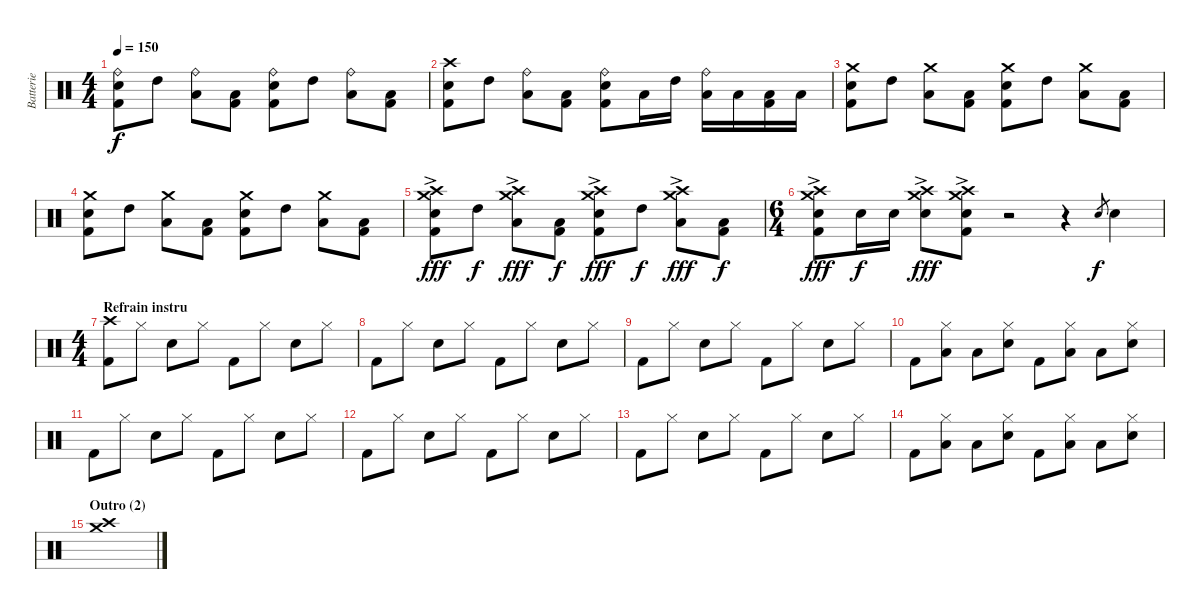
\track ("Batterie" "Batterie") {instrument percussion}
\staff {score}
\articulation defaults
\ts (4 4)
\tempo 150
\clef neutral
\ks c
("Ride (bell)" "Electric Snare (hit)" "Kick (hit) 2").8{dy f} "High Tom (hit)".8 ("Ride (bell)" "Low Tom (hit)").8 ("Low Floor Tom (hit)" "Kick (hit) 2").8 ("Ride (bell)" "Electric Snare (hit)" "Kick (hit) 2").8 "High Tom (hit)".8 ("Ride (bell)" "Low Tom (hit)").8 ("Low Floor Tom (hit)" "Kick (hit) 2").8 |
("Crash high (hit)" "Electric Snare (hit)" "Kick (hit) 2").8 "High Tom (hit)".8 ("Ride (bell)" "Low Tom (hit)").8 ("Low Floor Tom (hit)" "Kick (hit) 2").8 ("Ride (bell)" "Electric Snare (hit)" "Kick (hit) 2").8 "Low Tom (hit)".16 "High Tom (hit)".16 ("Ride (bell)" "Low Tom (hit)").16 "Low Tom (hit)".16 ("Low Floor Tom (hit)" "Kick (hit) 2").16 "Low Floor Tom (hit)".16 |
("Crash medium (hit)" "Electric Snare (hit)" "Kick (hit) 2").8 "High Tom (hit)".8 ("Crash medium (hit)" "Low Tom (hit)").8 ("Low Floor Tom (hit)" "Kick (hit) 2").8 ("Crash medium (hit)" "Electric Snare (hit)" "Kick (hit) 2").8 "High Tom (hit)".8 ("Crash medium (hit)" "Low Tom (hit)").8 ("Low Floor Tom (hit)" "Kick (hit) 2").8 |
("Crash medium (hit)" "Electric Snare (hit)" "Kick (hit) 2").8 "High Tom (hit)".8 ("Crash medium (hit)" "Low Tom (hit)").8 ("Low Floor Tom (hit)" "Kick (hit) 2").8 ("Crash medium (hit)" "Electric Snare (hit)" "Kick (hit) 2").8 "High Tom (hit)".8 ("Crash medium (hit)" "Low Tom (hit)").8 ("Low Floor Tom (hit)" "Kick (hit) 2").8 |
("Crash medium (hit)"{ac} "Crash high (hit)" "Electric Snare (hit)" "Kick (hit) 2").8{dy fff} "High Tom (hit)".8{dy f} ("Crash medium (hit)"{ac} "Crash high (hit)" "Low Tom (hit)").8{dy fff} ("Low Floor Tom (hit)" "Kick (hit) 2").8{dy f} ("Crash medium (hit)"{ac} "Crash high (hit)" "Electric Snare (hit)" "Kick (hit) 2").8{dy fff} "High Tom (hit)".8{dy f} ("Crash medium (hit)"{ac} "Crash high (hit)" "Low Tom (hit)").8{dy fff} ("Low Floor Tom (hit)" "Kick (hit) 2").8{dy f} |
\ts (6 4)
("Crash medium (hit)"{ac} "Crash high (hit)" "Electric Snare (hit)" "Kick (hit) 2").8{dy fff} "Electric Snare (hit)".16{dy f} "Electric Snare (hit)".16 ("Crash medium (hit)"{ac} "Crash high (hit)" "Electric Snare (hit)").8{dy fff} ("Crash medium (hit)"{ac} "Crash high (hit)" "Electric Snare (hit)" "Kick (hit) 2").8 r.2 r.4 "Electric Snare (hit)".8{gr dy f} "Electric Snare (hit)".4 |
\ts (4 4)
\section ("" "Refrain instru")
("Crash high (hit)" "Kick (hit) 2").8 "Hi-Hat (closed)".8 "Electric Snare (hit)".8 "Hi-Hat (closed)".8 "Kick (hit) 2".8 "Hi-Hat (closed)".8 "Electric Snare (hit)".8 "Hi-Hat (closed)".8 |
"Kick (hit) 2".8 "Hi-Hat (closed)".8 "Electric Snare (hit)".8 "Hi-Hat (closed)".8 "Kick (hit) 2".8 "Hi-Hat (closed)".8 "Electric Snare (hit)".8 "Hi-Hat (closed)".8 |
"Kick (hit) 2".8 "Hi-Hat (closed)".8 "Electric Snare (hit)".8 "Hi-Hat (closed)".8 "Kick (hit) 2".8 "Hi-Hat (closed)".8 "Electric Snare (hit)".8 "Hi-Hat (closed)".8 |
"Kick (hit) 2".8 ("Hi-Hat (closed)" "Low Floor Tom (hit)").8 "Low Tom (hit)".8 ("Hi-Hat (closed)" "Electric Snare (hit)").8 "Kick (hit) 2".8 ("Hi-Hat (closed)" "Low Floor Tom (hit)").8 "Low Tom (hit)".8 ("Hi-Hat (closed)" "Electric Snare (hit)").8 |
"Kick (hit) 2".8 "Hi-Hat (closed)".8 "Electric Snare (hit)".8 "Hi-Hat (closed)".8 "Kick (hit) 2".8 "Hi-Hat (closed)".8 "Electric Snare (hit)".8 "Hi-Hat (closed)".8 |
"Kick (hit) 2".8 "Hi-Hat (closed)".8 "Electric Snare (hit)".8 "Hi-Hat (closed)".8 "Kick (hit) 2".8 "Hi-Hat (closed)".8 "Electric Snare (hit)".8 "Hi-Hat (closed)".8 |
"Kick (hit) 2".8 "Hi-Hat (closed)".8 "Electric Snare (hit)".8 "Hi-Hat (closed)".8 "Kick (hit) 2".8 "Hi-Hat (closed)".8 "Electric Snare (hit)".8 "Hi-Hat (closed)".8 |
"Kick (hit) 2".8 ("Hi-Hat (closed)" "Low Floor Tom (hit)").8 "Low Tom (hit)".8 ("Hi-Hat (closed)" "Electric Snare (hit)").8 "Kick (hit) 2".8 ("Hi-Hat (closed)" "Low Floor Tom (hit)").8 "Low Tom (hit)".8 ("Hi-Hat (closed)" "Electric Snare (hit)").8 |
\section ("" "Outro (2)")
("Crash medium (hit)" "Crash high (hit)").1
